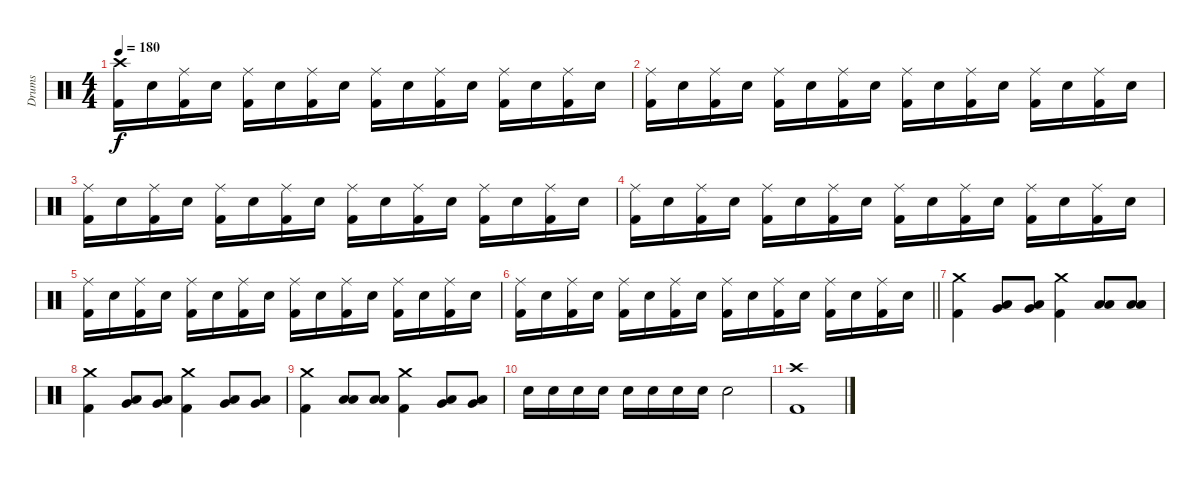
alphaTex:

\track ("Drums" "Drums") {instrument percussion}
\staff {score}
\articulation defaults
\ts (4 4)
\tempo 180
\clef neutral
\ks c
("Crash high (hit)" "Kick (hit) 2").16{dy f} "Electric Snare (hit)".16 ("Ride (middle)" "Kick (hit) 2").16 "Electric Snare (hit)".16 ("Ride (middle)" "Kick (hit) 2").16 "Electric Snare (hit)".16 ("Ride (middle)" "Kick (hit) 2").16 "Electric Snare (hit)".16 ("Ride (middle)" "Kick (hit) 2").16 "Electric Snare (hit)".16 ("Ride (middle)" "Kick (hit) 2").16 "Electric Snare (hit)".16 ("Ride (middle)" "Kick (hit) 2").16 "Electric Snare (hit)".16 ("Ride (middle)" "Kick (hit) 2").16 "Electric Snare (hit)".16 |
("Ride (middle)" "Kick (hit) 2").16 "Electric Snare (hit)".16 ("Ride (middle)" "Kick (hit) 2").16 "Electric Snare (hit)".16 ("Ride (middle)" "Kick (hit) 2").16 "Electric Snare (hit)".16 ("Ride (middle)" "Kick (hit) 2").16 "Electric Snare (hit)".16 ("Ride (middle)" "Kick (hit) 2").16 "Electric Snare (hit)".16 ("Ride (middle)" "Kick (hit) 2").16 "Electric Snare (hit)".16 ("Ride (middle)" "Kick (hit) 2").16 "Electric Snare (hit)".16 ("Ride (middle)" "Kick (hit) 2").16 "Electric Snare (hit)".16 |
("Ride (middle)" "Kick (hit) 2").16 "Electric Snare (hit)".16 ("Ride (middle)" "Kick (hit) 2").16 "Electric Snare (hit)".16 ("Ride (middle)" "Kick (hit) 2").16 "Electric Snare (hit)".16 ("Ride (middle)" "Kick (hit) 2").16 "Electric Snare (hit)".16 ("Ride (middle)" "Kick (hit) 2").16 "Electric Snare (hit)".16 ("Ride (middle)" "Kick (hit) 2").16 "Electric Snare (hit)".16 ("Ride (middle)" "Kick (hit) 2").16 "Electric Snare (hit)".16 ("Ride (middle)" "Kick (hit) 2").16 "Electric Snare (hit)".16 |
("Ride (middle)" "Kick (hit) 2").16 "Electric Snare (hit)".16 ("Ride (middle)" "Kick (hit) 2").16 "Electric Snare (hit)".16 ("Ride (middle)" "Kick (hit) 2").16 "Electric Snare (hit)".16 ("Ride (middle)" "Kick (hit) 2").16 "Electric Snare (hit)".16 ("Ride (middle)" "Kick (hit) 2").16 "Electric Snare (hit)".16 ("Ride (middle)" "Kick (hit) 2").16 "Electric Snare (hit)".16 ("Ride (middle)" "Kick (hit) 2").16 "Electric Snare (hit)".16 ("Ride (middle)" "Kick (hit) 2").16 "Electric Snare (hit)".16 |
("Ride (middle)" "Kick (hit) 2").16 "Electric Snare (hit)".16 ("Ride (middle)" "Kick (hit) 2").16 "Electric Snare (hit)".16 ("Ride (middle)" "Kick (hit) 2").16 "Electric Snare (hit)".16 ("Ride (middle)" "Kick (hit) 2").16 "Electric Snare (hit)".16 ("Ride (middle)" "Kick (hit) 2").16 "Electric Snare (hit)".16 ("Ride (middle)" "Kick (hit) 2").16 "Electric Snare (hit)".16 ("Ride (middle)" "Kick (hit) 2").16 "Electric Snare (hit)".16 ("Ride (middle)" "Kick (hit) 2").16 "Electric Snare (hit)".16 |
\barLineRight lightlight
("Ride (middle)" "Kick (hit) 2").16 "Electric Snare (hit)".16 ("Ride (middle)" "Kick (hit) 2").16 "Electric Snare (hit)".16 ("Ride (middle)" "Kick (hit) 2").16 "Electric Snare (hit)".16 ("Ride (middle)" "Kick (hit) 2").16 "Electric Snare (hit)".16 ("Ride (middle)" "Kick (hit) 2").16 "Electric Snare (hit)".16 ("Ride (middle)" "Kick (hit) 2").16 "Electric Snare (hit)".16 ("Ride (middle)" "Kick (hit) 2").16 "Electric Snare (hit)".16 ("Ride (middle)" "Kick (hit) 2").16 "Electric Snare (hit)".16 |
\section ("" "")
("Crash medium (hit)" "Kick (hit) 2").4 ("Low Tom (hit)" "Very Low Tom (hit)").8 ("Low Tom (hit)" "Very Low Tom (hit)").8 ("Crash medium (hit)" "Kick (hit) 2").4 ("Low Tom (hit)" "Low Floor Tom (hit)").8 ("Low Tom (hit)" "Low Floor Tom (hit)").8 |
("Crash medium (hit)" "Kick (hit) 2").4 ("Very Low Tom (hit)" "Low Floor Tom (hit)").8 ("Very Low Tom (hit)" "Low Floor Tom (hit)").8 ("Crash medium (hit)" "Kick (hit) 2").4 ("Low Tom (hit)" "Very Low Tom (hit)").8 ("Low Tom (hit)" "Very Low Tom (hit)").8 |
("Crash medium (hit)" "Kick (hit) 2").4 ("Low Tom (hit)" "Low Floor Tom (hit)").8 ("Low Tom (hit)" "Low Floor Tom (hit)").8 ("Crash medium (hit)" "Kick (hit) 2").4 ("Very Low Tom (hit)" "Low Floor Tom (hit)").8 ("Very Low Tom (hit)" "Low Floor Tom (hit)").8 |
"Electric Snare (hit)".16 "Electric Snare (hit)".16 "Electric Snare (hit)".16 "Electric Snare (hit)".16 "Electric Snare (hit)".16 "Electric Snare (hit)".16 "Electric Snare (hit)".16 "Electric Snare (hit)".16 "Electric Snare (hit)".2 |
("Crash high (hit)" "Kick (hit) 2").1
